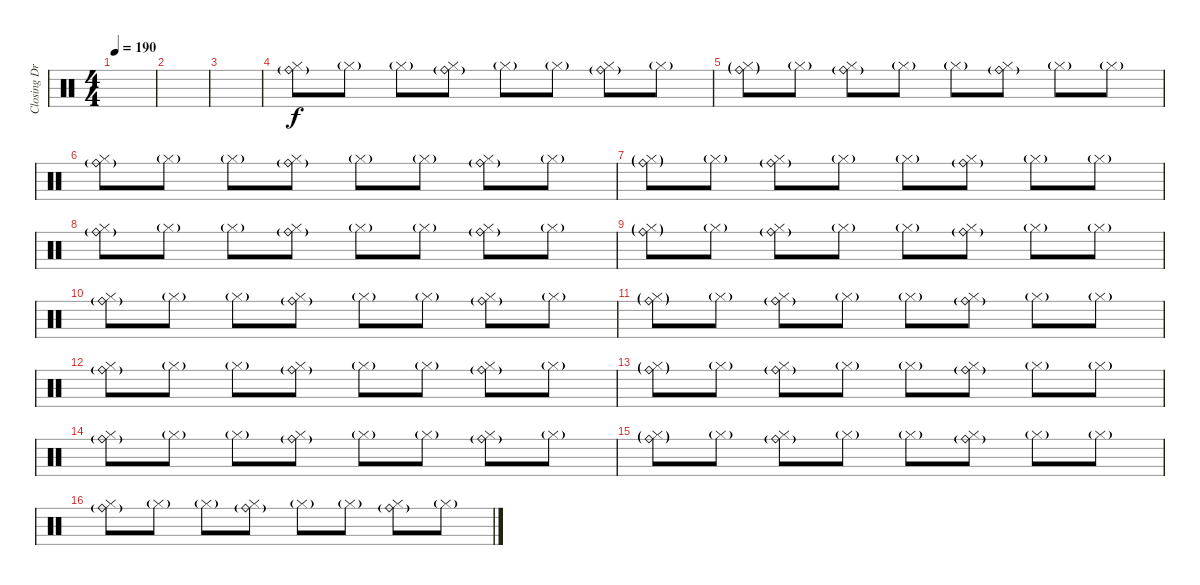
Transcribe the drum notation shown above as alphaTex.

\track ("Closing Drums" "Closing Dr") {instrument percussion}
\staff {score}
\articulation defaults
\ts (4 4)
\tempo 190
\clef neutral
\ks c
|
|
|
("Ride (bell)"{g} "Hi-Hat (closed)").8 "Hi-Hat (closed)"{g}.8 "Hi-Hat (closed)"{g}.8 ("Ride (bell)"{g} "Hi-Hat (closed)").8 "Hi-Hat (closed)"{g}.8 "Hi-Hat (closed)"{g}.8 ("Ride (bell)"{g} "Hi-Hat (closed)").8 "Hi-Hat (closed)"{g}.8 |
("Ride (bell)"{g} "Hi-Hat (closed)"{g}).8 "Hi-Hat (closed)"{g}.8 ("Ride (bell)"{g} "Hi-Hat (closed)").8 "Hi-Hat (closed)"{g}.8 "Hi-Hat (closed)"{g}.8 ("Ride (bell)"{g} "Hi-Hat (closed)").8 "Hi-Hat (closed)"{g}.8 "Hi-Hat (closed)"{g}.8 |
("Ride (bell)"{g} "Hi-Hat (closed)").8 "Hi-Hat (closed)"{g}.8 "Hi-Hat (closed)"{g}.8 ("Ride (bell)"{g} "Hi-Hat (closed)").8 "Hi-Hat (closed)"{g}.8 "Hi-Hat (closed)"{g}.8 ("Ride (bell)"{g} "Hi-Hat (closed)").8 "Hi-Hat (closed)"{g}.8 |
("Ride (bell)"{g} "Hi-Hat (closed)"{g}).8 "Hi-Hat (closed)"{g}.8 ("Ride (bell)"{g} "Hi-Hat (closed)").8 "Hi-Hat (closed)"{g}.8 "Hi-Hat (closed)"{g}.8 ("Ride (bell)"{g} "Hi-Hat (closed)").8 "Hi-Hat (closed)"{g}.8 "Hi-Hat (closed)"{g}.8 |
("Ride (bell)"{g} "Hi-Hat (closed)").8 "Hi-Hat (closed)"{g}.8 "Hi-Hat (closed)"{g}.8 ("Ride (bell)"{g} "Hi-Hat (closed)").8 "Hi-Hat (closed)"{g}.8 "Hi-Hat (closed)"{g}.8 ("Ride (bell)"{g} "Hi-Hat (closed)").8 "Hi-Hat (closed)"{g}.8 |
("Ride (bell)"{g} "Hi-Hat (closed)"{g}).8 "Hi-Hat (closed)"{g}.8 ("Ride (bell)"{g} "Hi-Hat (closed)").8 "Hi-Hat (closed)"{g}.8 "Hi-Hat (closed)"{g}.8 ("Ride (bell)"{g} "Hi-Hat (closed)").8 "Hi-Hat (closed)"{g}.8 "Hi-Hat (closed)"{g}.8 |
("Ride (bell)"{g} "Hi-Hat (closed)").8 "Hi-Hat (closed)"{g}.8 "Hi-Hat (closed)"{g}.8 ("Ride (bell)"{g} "Hi-Hat (closed)").8 "Hi-Hat (closed)"{g}.8 "Hi-Hat (closed)"{g}.8 ("Ride (bell)"{g} "Hi-Hat (closed)").8 "Hi-Hat (closed)"{g}.8 |
("Ride (bell)"{g} "Hi-Hat (closed)"{g}).8 "Hi-Hat (closed)"{g}.8 ("Ride (bell)"{g} "Hi-Hat (closed)").8 "Hi-Hat (closed)"{g}.8 "Hi-Hat (closed)"{g}.8 ("Ride (bell)"{g} "Hi-Hat (closed)").8 "Hi-Hat (closed)"{g}.8 "Hi-Hat (closed)"{g}.8 |
("Ride (bell)"{g} "Hi-Hat (closed)").8 "Hi-Hat (closed)"{g}.8 "Hi-Hat (closed)"{g}.8 ("Ride (bell)"{g} "Hi-Hat (closed)").8 "Hi-Hat (closed)"{g}.8 "Hi-Hat (closed)"{g}.8 ("Ride (bell)"{g} "Hi-Hat (closed)").8 "Hi-Hat (closed)"{g}.8 |
("Ride (bell)"{g} "Hi-Hat (closed)"{g}).8 "Hi-Hat (closed)"{g}.8 ("Ride (bell)"{g} "Hi-Hat (closed)").8 "Hi-Hat (closed)"{g}.8 "Hi-Hat (closed)"{g}.8 ("Ride (bell)"{g} "Hi-Hat (closed)").8 "Hi-Hat (closed)"{g}.8 "Hi-Hat (closed)"{g}.8 |
("Ride (bell)"{g} "Hi-Hat (closed)").8 "Hi-Hat (closed)"{g}.8 "Hi-Hat (closed)"{g}.8 ("Ride (bell)"{g} "Hi-Hat (closed)").8 "Hi-Hat (closed)"{g}.8 "Hi-Hat (closed)"{g}.8 ("Ride (bell)"{g} "Hi-Hat (closed)").8 "Hi-Hat (closed)"{g}.8 |
("Ride (bell)"{g} "Hi-Hat (closed)"{g}).8 "Hi-Hat (closed)"{g}.8 ("Ride (bell)"{g} "Hi-Hat (closed)").8 "Hi-Hat (closed)"{g}.8 "Hi-Hat (closed)"{g}.8 ("Ride (bell)"{g} "Hi-Hat (closed)").8 "Hi-Hat (closed)"{g}.8 "Hi-Hat (closed)"{g}.8 |
("Ride (bell)"{g} "Hi-Hat (closed)").8 "Hi-Hat (closed)"{g}.8 "Hi-Hat (closed)"{g}.8 ("Ride (bell)"{g} "Hi-Hat (closed)").8 "Hi-Hat (closed)"{g}.8 "Hi-Hat (closed)"{g}.8 ("Ride (bell)"{g} "Hi-Hat (closed)").8 "Hi-Hat (closed)"{g}.8
